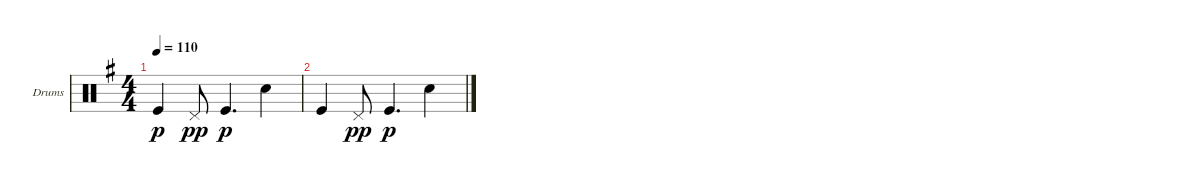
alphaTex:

\defaultSystemsLayout 4
\bracketExtendMode groupsimilarinstruments
\firstSystemTrackNameOrientation horizontal
\otherSystemsTrackNameOrientation horizontal
\track ("Drumkit" "Drums") {instrument percussion}
\staff {score}
\articulation defaults
\ts (4 4)
\tempo 110
\clef neutral
\ks g "Kick (hit)".4{dy p} "Pedal Hi-Hat (hit)".8{dy pp} "Kick (hit)".4{d dy p} "Snare (hit) 2".4
|
"Kick (hit)".4 "Pedal Hi-Hat (hit)".8{dy pp} "Kick (hit)".4{d dy p} "Snare (hit) 2".4
